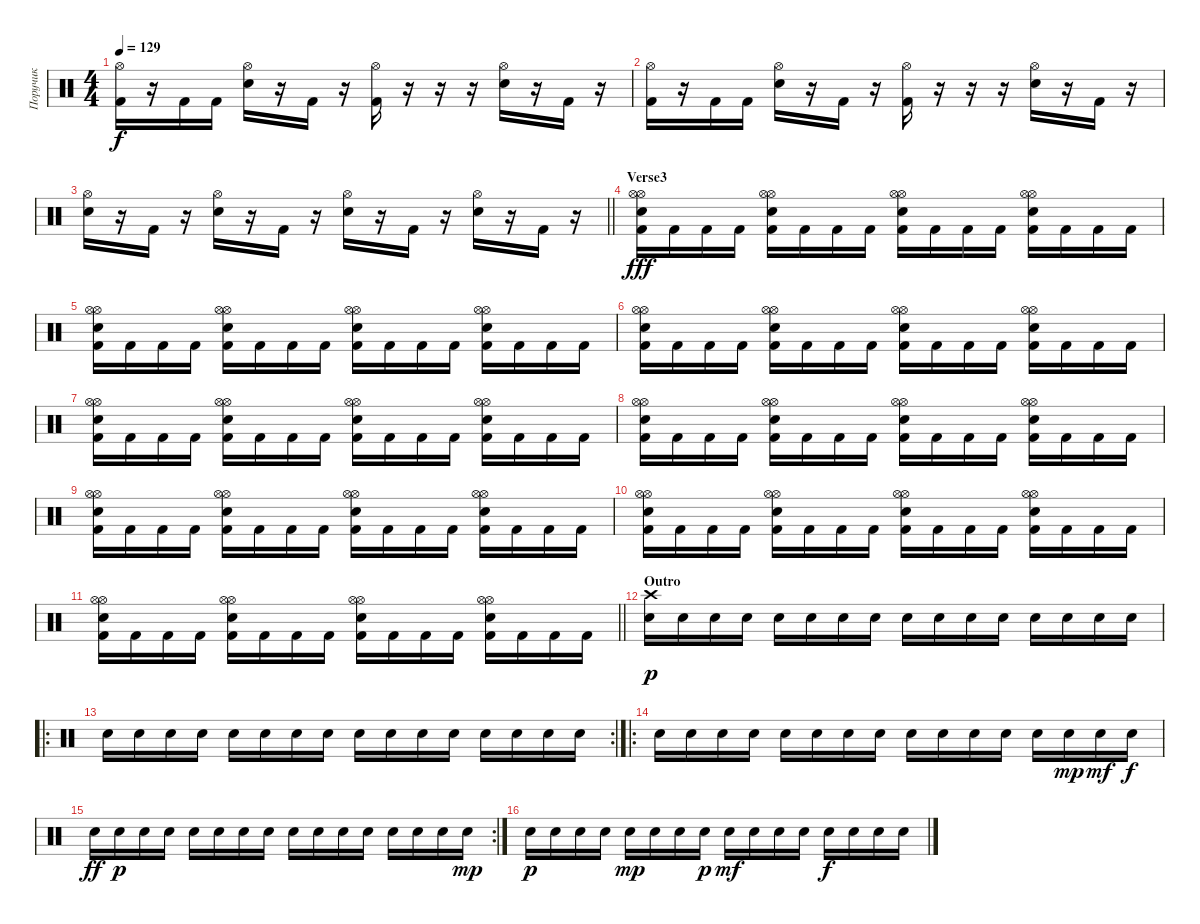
\track ("Поручик" "Поручик") {instrument percussion}
\staff {score}
\articulation defaults
\ts (4 4)
\tempo 129
\clef neutral
\ks c
("Hi-Hat (open)" "Kick (hit) 2").16{dy f} r.16 "Kick (hit) 2".16 "Kick (hit) 2".16 ("Hi-Hat (open)" "Snare (hit) 2").16 r.16 "Kick (hit) 2".16 r.16 ("Hi-Hat (open)" "Kick (hit) 2").16 r.16 r.16 r.16 ("Hi-Hat (open)" "Snare (hit) 2").16 r.16 "Kick (hit) 2".16 r.16 |
("Hi-Hat (open)" "Kick (hit) 2").16 r.16 "Kick (hit) 2".16 "Kick (hit) 2".16 ("Hi-Hat (open)" "Snare (hit) 2").16 r.16 "Kick (hit) 2".16 r.16 ("Hi-Hat (open)" "Kick (hit) 2").16 r.16 r.16 r.16 ("Hi-Hat (open)" "Snare (hit) 2").16 r.16 "Kick (hit) 2".16 r.16 |
\barLineRight lightlight
("Hi-Hat (open)" "Snare (hit) 2").16 r.16 "Kick (hit) 2".16 r.16 ("Hi-Hat (open)" "Snare (hit) 2").16 r.16 "Kick (hit) 2".16 r.16 ("Hi-Hat (open)" "Snare (hit) 2").16 r.16 "Kick (hit) 2".16 r.16 ("Hi-Hat (open)" "Snare (hit) 2").16 r.16 "Kick (hit) 2".16 r.16 |
\section ("" "Verse3")
("Hi-Hat (open)" "Hi-Hat (open)" "Electric Snare (hit)" "Kick (hit) 2").16{dy fff} "Kick (hit) 2".16 "Kick (hit) 2".16 "Kick (hit) 2".16 ("Hi-Hat (open)" "Hi-Hat (open)" "Electric Snare (hit)" "Kick (hit) 2").16 "Kick (hit) 2".16 "Kick (hit) 2".16 "Kick (hit) 2".16 ("Hi-Hat (open)" "Hi-Hat (open)" "Electric Snare (hit)" "Kick (hit) 2").16 "Kick (hit) 2".16 "Kick (hit) 2".16 "Kick (hit) 2".16 ("Hi-Hat (open)" "Hi-Hat (open)" "Electric Snare (hit)" "Kick (hit) 2").16 "Kick (hit) 2".16 "Kick (hit) 2".16 "Kick (hit) 2".16 |
("Hi-Hat (open)" "Hi-Hat (open)" "Electric Snare (hit)" "Kick (hit) 2").16 "Kick (hit) 2".16 "Kick (hit) 2".16 "Kick (hit) 2".16 ("Hi-Hat (open)" "Hi-Hat (open)" "Electric Snare (hit)" "Kick (hit) 2").16 "Kick (hit) 2".16 "Kick (hit) 2".16 "Kick (hit) 2".16 ("Hi-Hat (open)" "Hi-Hat (open)" "Electric Snare (hit)" "Kick (hit) 2").16 "Kick (hit) 2".16 "Kick (hit) 2".16 "Kick (hit) 2".16 ("Hi-Hat (open)" "Hi-Hat (open)" "Electric Snare (hit)" "Kick (hit) 2").16 "Kick (hit) 2".16 "Kick (hit) 2".16 "Kick (hit) 2".16 |
("Hi-Hat (open)" "Hi-Hat (open)" "Electric Snare (hit)" "Kick (hit) 2").16 "Kick (hit) 2".16 "Kick (hit) 2".16 "Kick (hit) 2".16 ("Hi-Hat (open)" "Hi-Hat (open)" "Electric Snare (hit)" "Kick (hit) 2").16 "Kick (hit) 2".16 "Kick (hit) 2".16 "Kick (hit) 2".16 ("Hi-Hat (open)" "Hi-Hat (open)" "Electric Snare (hit)" "Kick (hit) 2").16 "Kick (hit) 2".16 "Kick (hit) 2".16 "Kick (hit) 2".16 ("Hi-Hat (open)" "Hi-Hat (open)" "Electric Snare (hit)" "Kick (hit) 2").16 "Kick (hit) 2".16 "Kick (hit) 2".16 "Kick (hit) 2".16 |
("Hi-Hat (open)" "Hi-Hat (open)" "Electric Snare (hit)" "Kick (hit) 2").16 "Kick (hit) 2".16 "Kick (hit) 2".16 "Kick (hit) 2".16 ("Hi-Hat (open)" "Hi-Hat (open)" "Electric Snare (hit)" "Kick (hit) 2").16 "Kick (hit) 2".16 "Kick (hit) 2".16 "Kick (hit) 2".16 ("Hi-Hat (open)" "Hi-Hat (open)" "Electric Snare (hit)" "Kick (hit) 2").16 "Kick (hit) 2".16 "Kick (hit) 2".16 "Kick (hit) 2".16 ("Hi-Hat (open)" "Hi-Hat (open)" "Electric Snare (hit)" "Kick (hit) 2").16 "Kick (hit) 2".16 "Kick (hit) 2".16 "Kick (hit) 2".16 |
("Hi-Hat (open)" "Hi-Hat (open)" "Electric Snare (hit)" "Kick (hit) 2").16 "Kick (hit) 2".16 "Kick (hit) 2".16 "Kick (hit) 2".16 ("Hi-Hat (open)" "Hi-Hat (open)" "Electric Snare (hit)" "Kick (hit) 2").16 "Kick (hit) 2".16 "Kick (hit) 2".16 "Kick (hit) 2".16 ("Hi-Hat (open)" "Hi-Hat (open)" "Electric Snare (hit)" "Kick (hit) 2").16 "Kick (hit) 2".16 "Kick (hit) 2".16 "Kick (hit) 2".16 ("Hi-Hat (open)" "Hi-Hat (open)" "Electric Snare (hit)" "Kick (hit) 2").16 "Kick (hit) 2".16 "Kick (hit) 2".16 "Kick (hit) 2".16 |
("Hi-Hat (open)" "Hi-Hat (open)" "Electric Snare (hit)" "Kick (hit) 2").16 "Kick (hit) 2".16 "Kick (hit) 2".16 "Kick (hit) 2".16 ("Hi-Hat (open)" "Hi-Hat (open)" "Electric Snare (hit)" "Kick (hit) 2").16 "Kick (hit) 2".16 "Kick (hit) 2".16 "Kick (hit) 2".16 ("Hi-Hat (open)" "Hi-Hat (open)" "Electric Snare (hit)" "Kick (hit) 2").16 "Kick (hit) 2".16 "Kick (hit) 2".16 "Kick (hit) 2".16 ("Hi-Hat (open)" "Hi-Hat (open)" "Electric Snare (hit)" "Kick (hit) 2").16 "Kick (hit) 2".16 "Kick (hit) 2".16 "Kick (hit) 2".16 |
("Hi-Hat (open)" "Hi-Hat (open)" "Electric Snare (hit)" "Kick (hit) 2").16 "Kick (hit) 2".16 "Kick (hit) 2".16 "Kick (hit) 2".16 ("Hi-Hat (open)" "Hi-Hat (open)" "Electric Snare (hit)" "Kick (hit) 2").16 "Kick (hit) 2".16 "Kick (hit) 2".16 "Kick (hit) 2".16 ("Hi-Hat (open)" "Hi-Hat (open)" "Electric Snare (hit)" "Kick (hit) 2").16 "Kick (hit) 2".16 "Kick (hit) 2".16 "Kick (hit) 2".16 ("Hi-Hat (open)" "Hi-Hat (open)" "Electric Snare (hit)" "Kick (hit) 2").16 "Kick (hit) 2".16 "Kick (hit) 2".16 "Kick (hit) 2".16 |
\barLineRight lightlight
("Hi-Hat (open)" "Hi-Hat (open)" "Electric Snare (hit)" "Kick (hit) 2").16 "Kick (hit) 2".16 "Kick (hit) 2".16 "Kick (hit) 2".16 ("Hi-Hat (open)" "Hi-Hat (open)" "Electric Snare (hit)" "Kick (hit) 2").16 "Kick (hit) 2".16 "Kick (hit) 2".16 "Kick (hit) 2".16 ("Hi-Hat (open)" "Hi-Hat (open)" "Electric Snare (hit)" "Kick (hit) 2").16 "Kick (hit) 2".16 "Kick (hit) 2".16 "Kick (hit) 2".16 ("Hi-Hat (open)" "Hi-Hat (open)" "Electric Snare (hit)" "Kick (hit) 2").16 "Kick (hit) 2".16 "Kick (hit) 2".16 "Kick (hit) 2".16 |
\section ("" "Outro")
("Crash high (hit)" "Electric Snare (hit)").16{dy p} "Electric Snare (hit)".16 "Electric Snare (hit)".16 "Electric Snare (hit)".16 "Electric Snare (hit)".16 "Electric Snare (hit)".16 "Electric Snare (hit)".16 "Electric Snare (hit)".16 "Electric Snare (hit)".16 "Electric Snare (hit)".16 "Electric Snare (hit)".16 "Electric Snare (hit)".16 "Electric Snare (hit)".16 "Electric Snare (hit)".16 "Electric Snare (hit)".16 "Electric Snare (hit)".16 |
\ro
\rc 2 "Electric Snare (hit)".16 "Electric Snare (hit)".16 "Electric Snare (hit)".16 "Electric Snare (hit)".16 "Electric Snare (hit)".16 "Electric Snare (hit)".16 "Electric Snare (hit)".16 "Electric Snare (hit)".16 "Electric Snare (hit)".16 "Electric Snare (hit)".16 "Electric Snare (hit)".16 "Electric Snare (hit)".16 "Electric Snare (hit)".16 "Electric Snare (hit)".16 "Electric Snare (hit)".16 "Electric Snare (hit)".16
|
\ro "Electric Snare (hit)".16 "Electric Snare (hit)".16 "Electric Snare (hit)".16 "Electric Snare (hit)".16 "Electric Snare (hit)".16 "Electric Snare (hit)".16 "Electric Snare (hit)".16 "Electric Snare (hit)".16 "Electric Snare (hit)".16 "Electric Snare (hit)".16 "Electric Snare (hit)".16 "Electric Snare (hit)".16 "Electric Snare (hit)".16 "Electric Snare (hit)".16{dy mp} "Electric Snare (hit)".16{dy mf} "Electric Snare (hit)".16{dy f}
|
\rc 2 "Electric Snare (hit)".16{dy ff} "Electric Snare (hit)".16{dy p} "Electric Snare (hit)".16 "Electric Snare (hit)".16 "Electric Snare (hit)".16 "Electric Snare (hit)".16 "Electric Snare (hit)".16 "Electric Snare (hit)".16 "Electric Snare (hit)".16 "Electric Snare (hit)".16 "Electric Snare (hit)".16 "Electric Snare (hit)".16 "Electric Snare (hit)".16 "Electric Snare (hit)".16 "Electric Snare (hit)".16 "Electric Snare (hit)".16{dy mp}
|
"Electric Snare (hit)".16{dy p} "Electric Snare (hit)".16 "Electric Snare (hit)".16 "Electric Snare (hit)".16 "Electric Snare (hit)".16{dy mp} "Electric Snare (hit)".16 "Electric Snare (hit)".16 "Electric Snare (hit)".16{dy p} "Electric Snare (hit)".16{dy mf} "Electric Snare (hit)".16 "Electric Snare (hit)".16 "Electric Snare (hit)".16 "Electric Snare (hit)".16{dy f} "Electric Snare (hit)".16 "Electric Snare (hit)".16 "Electric Snare (hit)".16
